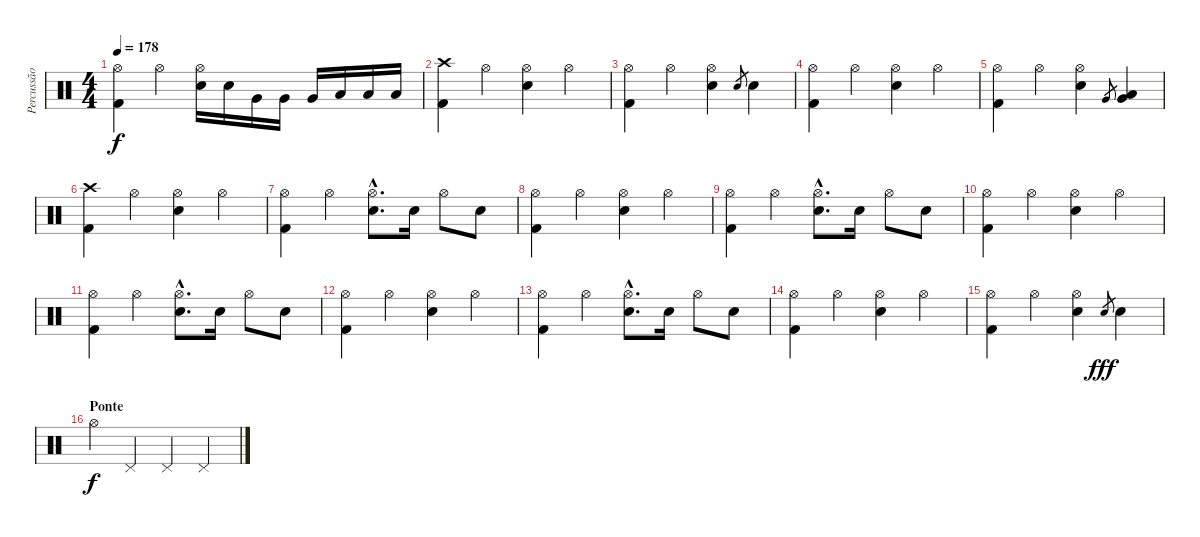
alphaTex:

\track ("Percussão" "Percussão") {instrument percussion}
\staff {score}
\articulation defaults
\ts (4 4)
\tempo 178
\clef neutral
\ks c
("Hi-Hat (open)" "Kick (hit) 2").4{dy f} "Hi-Hat (open)".4 ("Hi-Hat (open)" "Snare (hit) 2").16 "Snare (hit) 2".16 "Very Low Tom (hit)".16 "Very Low Tom (hit)".16 "Very Low Tom (hit)".16 "Low Tom (hit)".16 "Low Tom (hit)".16 "Low Tom (hit)".16 |
("Crash high (hit)" "Kick (hit) 2").4 "Hi-Hat (open)".4 ("Hi-Hat (open)" "Snare (hit) 2").4 "Hi-Hat (open)".4 |
("Hi-Hat (open)" "Kick (hit) 2").4 "Hi-Hat (open)".4 ("Hi-Hat (open)" "Snare (hit) 2").4 "Snare (hit) 2".8{gr} "Snare (hit) 2".4 |
("Hi-Hat (open)" "Kick (hit) 2").4 "Hi-Hat (open)".4 ("Hi-Hat (open)" "Snare (hit) 2").4 "Hi-Hat (open)".4 |
("Hi-Hat (open)" "Kick (hit) 2").4 "Hi-Hat (open)".4 ("Hi-Hat (open)" "Snare (hit) 2").4 "Very Low Tom (hit)".8{gr} ("Very Low Tom (hit)" "Low Tom (hit)").4 |
("Crash high (hit)" "Kick (hit) 2").4 "Hi-Hat (open)".4 ("Hi-Hat (open)" "Snare (hit) 2").4 "Hi-Hat (open)".4 |
("Hi-Hat (open)" "Kick (hit) 2").4 "Hi-Hat (open)".4 ("Hi-Hat (open)"{hac} "Snare (hit) 2"{hac}).8{d} "Snare (hit) 2".16 "Hi-Hat (open)".8 "Snare (hit) 2".8 |
("Hi-Hat (open)" "Kick (hit) 2").4 "Hi-Hat (open)".4 ("Hi-Hat (open)" "Snare (hit) 2").4 "Hi-Hat (open)".4 |
("Hi-Hat (open)" "Kick (hit) 2").4 "Hi-Hat (open)".4 ("Hi-Hat (open)"{hac} "Snare (hit) 2"{hac}).8{d} "Snare (hit) 2".16 "Hi-Hat (open)".8 "Snare (hit) 2".8 |
("Hi-Hat (open)" "Kick (hit) 2").4 "Hi-Hat (open)".4 ("Hi-Hat (open)" "Snare (hit) 2").4 "Hi-Hat (open)".4 |
("Hi-Hat (open)" "Kick (hit) 2").4 "Hi-Hat (open)".4 ("Hi-Hat (open)"{hac} "Snare (hit) 2"{hac}).8{d} "Snare (hit) 2".16 "Hi-Hat (open)".8 "Snare (hit) 2".8 |
("Hi-Hat (open)" "Kick (hit) 2").4 "Hi-Hat (open)".4 ("Hi-Hat (open)" "Snare (hit) 2").4 "Hi-Hat (open)".4 |
("Hi-Hat (open)" "Kick (hit) 2").4 "Hi-Hat (open)".4 ("Hi-Hat (open)"{hac} "Snare (hit) 2"{hac}).8{d} "Snare (hit) 2".16 "Hi-Hat (open)".8 "Snare (hit) 2".8 |
("Hi-Hat (open)" "Kick (hit) 2").4 "Hi-Hat (open)".4 ("Hi-Hat (open)" "Snare (hit) 2").4 "Hi-Hat (open)".4 |
("Hi-Hat (open)" "Kick (hit) 2").4 "Hi-Hat (open)".4 ("Hi-Hat (open)" "Snare (hit) 2").4 "Snare (hit) 2".8{gr dy fff} "Snare (hit) 2".4 |
\section ("" "Ponte")
"Hi-Hat (open)".4{dy f} "Pedal Hi-Hat (hit)".4 "Pedal Hi-Hat (hit)".4 "Pedal Hi-Hat (hit)".4
